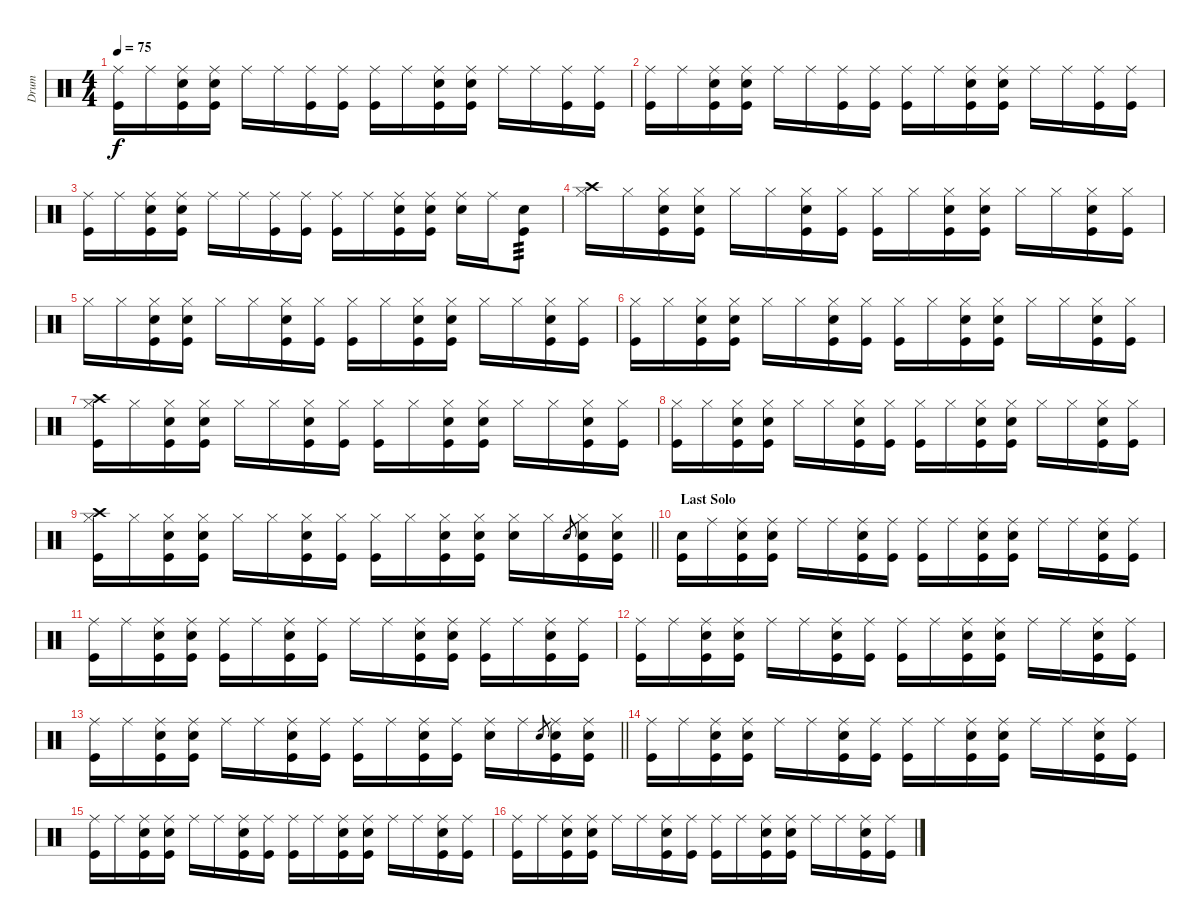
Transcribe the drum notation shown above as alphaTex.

\track ("Drum" "Drum") {instrument percussion}
\staff {score}
\articulation defaults
\ts (4 4)
\tempo 75
\clef neutral
\ks c
("Ride (middle)" "Kick (hit)").16{dy f} "Ride (middle)".16 ("Ride (middle)" "Electric Snare (hit)" "Kick (hit)").16 ("Ride (middle)" "Electric Snare (hit)" "Kick (hit)").16 "Ride (middle)".16 "Ride (middle)".16 ("Ride (middle)" "Kick (hit)").16 ("Ride (middle)" "Kick (hit)").16 ("Ride (middle)" "Kick (hit)").16 "Ride (middle)".16 ("Ride (middle)" "Electric Snare (hit)" "Kick (hit)").16 ("Ride (middle)" "Electric Snare (hit)" "Kick (hit)").16 "Ride (middle)".16 "Ride (middle)".16 ("Ride (middle)" "Kick (hit)").16 ("Ride (middle)" "Kick (hit)").16 |
("Ride (middle)" "Kick (hit)").16 "Ride (middle)".16 ("Ride (middle)" "Electric Snare (hit)" "Kick (hit)").16 ("Ride (middle)" "Electric Snare (hit)" "Kick (hit)").16 "Ride (middle)".16 "Ride (middle)".16 ("Ride (middle)" "Kick (hit)").16 ("Ride (middle)" "Kick (hit)").16 ("Ride (middle)" "Kick (hit)").16 "Ride (middle)".16 ("Ride (middle)" "Electric Snare (hit)" "Kick (hit)").16 ("Ride (middle)" "Electric Snare (hit)" "Kick (hit)").16 "Ride (middle)".16 "Ride (middle)".16 ("Ride (middle)" "Kick (hit)").16 ("Ride (middle)" "Kick (hit)").16 |
("Ride (middle)" "Kick (hit)").16 "Ride (middle)".16 ("Ride (middle)" "Electric Snare (hit)" "Kick (hit)").16 ("Ride (middle)" "Electric Snare (hit)" "Kick (hit)").16 "Ride (middle)".16 "Ride (middle)".16 ("Ride (middle)" "Kick (hit)").16 ("Ride (middle)" "Kick (hit)").16 ("Ride (middle)" "Kick (hit)").16 "Ride (middle)".16 ("Ride (middle)" "Electric Snare (hit)" "Kick (hit)").16 ("Ride (middle)" "Electric Snare (hit)" "Kick (hit)").16 ("Ride (middle)" "Electric Snare (hit)").16 "Ride (middle)".16 ("Electric Snare (hit)" "Kick (hit)").8{tp 3} |
("Hi-Hat (closed)" "Crash high (hit)").16 "Hi-Hat (closed)".16 ("Hi-Hat (closed)" "Electric Snare (hit)" "Kick (hit)").16 ("Hi-Hat (closed)" "Electric Snare (hit)" "Kick (hit)").16 "Hi-Hat (closed)".16 "Hi-Hat (closed)".16 ("Hi-Hat (closed)" "Electric Snare (hit)" "Kick (hit)").16 ("Hi-Hat (closed)" "Kick (hit)").16 ("Hi-Hat (closed)" "Kick (hit)").16 "Hi-Hat (closed)".16 ("Hi-Hat (closed)" "Electric Snare (hit)" "Kick (hit)").16 ("Hi-Hat (closed)" "Electric Snare (hit)" "Kick (hit)").16 "Hi-Hat (closed)".16 "Hi-Hat (closed)".16 ("Hi-Hat (closed)" "Electric Snare (hit)" "Kick (hit)").16 ("Hi-Hat (closed)" "Kick (hit)").16 |
"Hi-Hat (closed)".16 "Hi-Hat (closed)".16 ("Hi-Hat (closed)" "Electric Snare (hit)" "Kick (hit)").16 ("Hi-Hat (closed)" "Electric Snare (hit)" "Kick (hit)").16 "Hi-Hat (closed)".16 "Hi-Hat (closed)".16 ("Hi-Hat (closed)" "Electric Snare (hit)" "Kick (hit)").16 ("Hi-Hat (closed)" "Kick (hit)").16 ("Hi-Hat (closed)" "Kick (hit)").16 "Hi-Hat (closed)".16 ("Hi-Hat (closed)" "Electric Snare (hit)" "Kick (hit)").16 ("Hi-Hat (closed)" "Electric Snare (hit)" "Kick (hit)").16 "Hi-Hat (closed)".16 "Hi-Hat (closed)".16 ("Hi-Hat (closed)" "Electric Snare (hit)" "Kick (hit)").16 ("Hi-Hat (closed)" "Kick (hit)").16 |
("Hi-Hat (closed)" "Kick (hit)").16 "Hi-Hat (closed)".16 ("Hi-Hat (closed)" "Electric Snare (hit)" "Kick (hit)").16 ("Hi-Hat (closed)" "Electric Snare (hit)" "Kick (hit)").16 "Hi-Hat (closed)".16 "Hi-Hat (closed)".16 ("Hi-Hat (closed)" "Electric Snare (hit)" "Kick (hit)").16 ("Hi-Hat (closed)" "Kick (hit)").16 ("Hi-Hat (closed)" "Kick (hit)").16 "Hi-Hat (closed)".16 ("Hi-Hat (closed)" "Electric Snare (hit)" "Kick (hit)").16 ("Hi-Hat (closed)" "Electric Snare (hit)" "Kick (hit)").16 "Hi-Hat (closed)".16 "Hi-Hat (closed)".16 ("Hi-Hat (closed)" "Electric Snare (hit)" "Kick (hit)").16 ("Hi-Hat (closed)" "Kick (hit)").16 |
("Hi-Hat (closed)" "Crash high (hit)" "Kick (hit)").16 "Hi-Hat (closed)".16 ("Hi-Hat (closed)" "Electric Snare (hit)" "Kick (hit)").16 ("Hi-Hat (closed)" "Electric Snare (hit)" "Kick (hit)").16 "Hi-Hat (closed)".16 "Hi-Hat (closed)".16 ("Hi-Hat (closed)" "Electric Snare (hit)" "Kick (hit)").16 ("Hi-Hat (closed)" "Kick (hit)").16 ("Hi-Hat (closed)" "Kick (hit)").16 "Hi-Hat (closed)".16 ("Hi-Hat (closed)" "Electric Snare (hit)" "Kick (hit)").16 ("Hi-Hat (closed)" "Electric Snare (hit)" "Kick (hit)").16 "Hi-Hat (closed)".16 "Hi-Hat (closed)".16 ("Hi-Hat (closed)" "Electric Snare (hit)" "Kick (hit)").16 ("Hi-Hat (closed)" "Kick (hit)").16 |
("Hi-Hat (closed)" "Kick (hit)").16 "Hi-Hat (closed)".16 ("Hi-Hat (closed)" "Electric Snare (hit)" "Kick (hit)").16 ("Hi-Hat (closed)" "Electric Snare (hit)" "Kick (hit)").16 "Hi-Hat (closed)".16 "Hi-Hat (closed)".16 ("Hi-Hat (closed)" "Electric Snare (hit)" "Kick (hit)").16 ("Hi-Hat (closed)" "Kick (hit)").16 ("Hi-Hat (closed)" "Kick (hit)").16 "Hi-Hat (closed)".16 ("Hi-Hat (closed)" "Electric Snare (hit)" "Kick (hit)").16 ("Hi-Hat (closed)" "Electric Snare (hit)" "Kick (hit)").16 "Hi-Hat (closed)".16 "Hi-Hat (closed)".16 ("Hi-Hat (closed)" "Electric Snare (hit)" "Kick (hit)").16 ("Hi-Hat (closed)" "Kick (hit)").16 |
\barLineRight lightlight
("Hi-Hat (closed)" "Crash high (hit)" "Kick (hit)").16 "Hi-Hat (closed)".16 ("Hi-Hat (closed)" "Electric Snare (hit)" "Kick (hit)").16 ("Hi-Hat (closed)" "Electric Snare (hit)" "Kick (hit)").16 "Hi-Hat (closed)".16 "Hi-Hat (closed)".16 ("Hi-Hat (closed)" "Electric Snare (hit)" "Kick (hit)").16 ("Hi-Hat (closed)" "Kick (hit)").16 ("Hi-Hat (closed)" "Kick (hit)").16 "Hi-Hat (closed)".16 ("Hi-Hat (closed)" "Electric Snare (hit)" "Kick (hit)").16 ("Hi-Hat (closed)" "Electric Snare (hit)" "Kick (hit)").16 ("Hi-Hat (closed)" "Electric Snare (hit)").16 "Hi-Hat (closed)".16 "Electric Snare (hit)".8{gr} ("Hi-Hat (closed)" "Electric Snare (hit)" "Kick (hit)").16 ("Hi-Hat (closed)" "Electric Snare (hit)" "Kick (hit)").16 |
\section ("" " Last Solo")
("Electric Snare (hit)" "Kick (hit)").16 "Ride (middle)".16 ("Ride (middle)" "Electric Snare (hit)" "Kick (hit)").16 ("Ride (middle)" "Electric Snare (hit)" "Kick (hit)").16 "Ride (middle)".16 "Ride (middle)".16 ("Ride (middle)" "Electric Snare (hit)" "Kick (hit)").16 ("Ride (middle)" "Kick (hit)").16 ("Ride (middle)" "Kick (hit)").16 "Ride (middle)".16 ("Ride (middle)" "Electric Snare (hit)" "Kick (hit)").16 ("Ride (middle)" "Electric Snare (hit)" "Kick (hit)").16 "Ride (middle)".16 "Ride (middle)".16 ("Ride (middle)" "Electric Snare (hit)" "Kick (hit)").16 ("Ride (middle)" "Kick (hit)").16 |
("Ride (middle)" "Kick (hit)").16 "Ride (middle)".16 ("Ride (middle)" "Electric Snare (hit)" "Kick (hit)").16 ("Ride (middle)" "Electric Snare (hit)" "Kick (hit)").16 ("Ride (middle)" "Kick (hit)").16 "Ride (middle)".16 ("Ride (middle)" "Electric Snare (hit)" "Kick (hit)").16 ("Ride (middle)" "Kick (hit)").16 "Ride (middle)".16 "Ride (middle)".16 ("Ride (middle)" "Electric Snare (hit)" "Kick (hit)").16 ("Ride (middle)" "Electric Snare (hit)" "Kick (hit)").16 ("Ride (middle)" "Kick (hit)").16 "Ride (middle)".16 ("Ride (middle)" "Electric Snare (hit)" "Kick (hit)").16 ("Ride (middle)" "Kick (hit)").16 |
("Ride (middle)" "Kick (hit)").16 "Ride (middle)".16 ("Ride (middle)" "Electric Snare (hit)" "Kick (hit)").16 ("Ride (middle)" "Electric Snare (hit)" "Kick (hit)").16 "Ride (middle)".16 "Ride (middle)".16 ("Ride (middle)" "Electric Snare (hit)" "Kick (hit)").16 ("Ride (middle)" "Kick (hit)").16 ("Ride (middle)" "Kick (hit)").16 "Ride (middle)".16 ("Ride (middle)" "Electric Snare (hit)" "Kick (hit)").16 ("Ride (middle)" "Electric Snare (hit)" "Kick (hit)").16 "Ride (middle)".16 "Ride (middle)".16 ("Ride (middle)" "Electric Snare (hit)" "Kick (hit)").16 ("Ride (middle)" "Kick (hit)").16 |
\barLineRight lightlight
("Ride (middle)" "Kick (hit)").16 "Ride (middle)".16 ("Ride (middle)" "Electric Snare (hit)" "Kick (hit)").16 ("Ride (middle)" "Electric Snare (hit)" "Kick (hit)").16 "Ride (middle)".16 "Ride (middle)".16 ("Ride (middle)" "Electric Snare (hit)" "Kick (hit)").16 ("Ride (middle)" "Kick (hit)").16 ("Ride (middle)" "Kick (hit)").16 "Ride (middle)".16 ("Ride (middle)" "Electric Snare (hit)" "Kick (hit)").16 ("Ride (middle)" "Kick (hit)").16 ("Ride (middle)" "Electric Snare (hit)").16 "Ride (middle)".16 "Electric Snare (hit)".8{gr} ("Ride (middle)" "Electric Snare (hit)" "Kick (hit)").16 ("Ride (middle)" "Electric Snare (hit)" "Kick (hit)").16 |
("Ride (middle)" "Kick (hit)").16 "Ride (middle)".16 ("Ride (middle)" "Electric Snare (hit)" "Kick (hit)").16 ("Ride (middle)" "Electric Snare (hit)" "Kick (hit)").16 "Ride (middle)".16 "Ride (middle)".16 ("Ride (middle)" "Electric Snare (hit)" "Kick (hit)").16 ("Ride (middle)" "Kick (hit)").16 ("Ride (middle)" "Kick (hit)").16 "Ride (middle)".16 ("Ride (middle)" "Electric Snare (hit)" "Kick (hit)").16 ("Ride (middle)" "Electric Snare (hit)" "Kick (hit)").16 "Ride (middle)".16 "Ride (middle)".16 ("Ride (middle)" "Electric Snare (hit)" "Kick (hit)").16 ("Ride (middle)" "Kick (hit)").16 |
("Ride (middle)" "Kick (hit)").16 "Ride (middle)".16 ("Ride (middle)" "Electric Snare (hit)" "Kick (hit)").16 ("Ride (middle)" "Electric Snare (hit)" "Kick (hit)").16 "Ride (middle)".16 "Ride (middle)".16 ("Ride (middle)" "Electric Snare (hit)" "Kick (hit)").16 ("Ride (middle)" "Kick (hit)").16 ("Ride (middle)" "Kick (hit)").16 "Ride (middle)".16 ("Ride (middle)" "Electric Snare (hit)" "Kick (hit)").16 ("Ride (middle)" "Electric Snare (hit)" "Kick (hit)").16 "Ride (middle)".16 "Ride (middle)".16 ("Ride (middle)" "Electric Snare (hit)" "Kick (hit)").16 ("Ride (middle)" "Kick (hit)").16 |
("Ride (middle)" "Kick (hit)").16 "Ride (middle)".16 ("Ride (middle)" "Electric Snare (hit)" "Kick (hit)").16 ("Ride (middle)" "Electric Snare (hit)" "Kick (hit)").16 "Ride (middle)".16 "Ride (middle)".16 ("Ride (middle)" "Electric Snare (hit)" "Kick (hit)").16 ("Ride (middle)" "Kick (hit)").16 ("Ride (middle)" "Kick (hit)").16 "Ride (middle)".16 ("Ride (middle)" "Electric Snare (hit)" "Kick (hit)").16 ("Ride (middle)" "Electric Snare (hit)" "Kick (hit)").16 "Ride (middle)".16 "Ride (middle)".16 ("Ride (middle)" "Electric Snare (hit)" "Kick (hit)").16 ("Ride (middle)" "Kick (hit)").16
